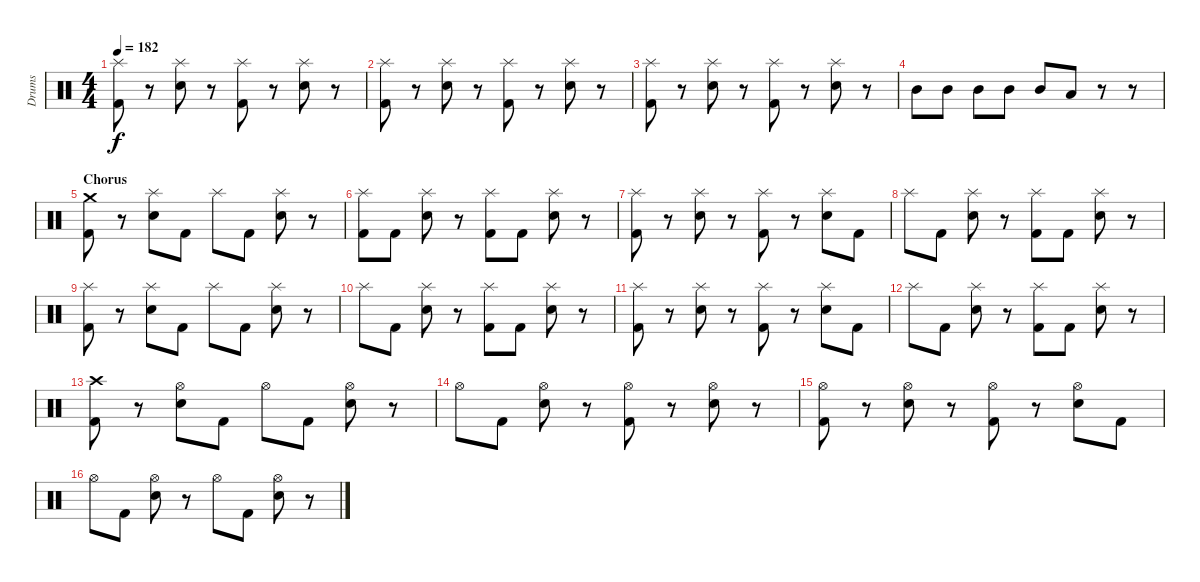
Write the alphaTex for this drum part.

\track ("Drums" "Drums") {instrument percussion}
\staff {score}
\articulation defaults
\ts (4 4)
\tempo 182
\clef neutral
\ks c
("Splash (hit)" "Kick (hit) 2").8{dy f} r.8 ("Splash (hit)" "Snare (hit) 2").8 r.8 ("Splash (hit)" "Kick (hit) 2").8 r.8 ("Splash (hit)" "Snare (hit) 2").8 r.8 |
("Splash (hit)" "Kick (hit) 2").8 r.8 ("Splash (hit)" "Snare (hit) 2").8 r.8 ("Splash (hit)" "Kick (hit) 2").8 r.8 ("Splash (hit)" "Snare (hit) 2").8 r.8 |
("Splash (hit)" "Kick (hit) 2").8 r.8 ("Splash (hit)" "Snare (hit) 2").8 r.8 ("Splash (hit)" "Kick (hit) 2").8 r.8 ("Splash (hit)" "Snare (hit) 2").8 r.8 |
"Mid Tom (hit)".8 "Mid Tom (hit)".8 "Mid Tom (hit)".8 "Mid Tom (hit)".8 "Mid Tom (hit)".8 "Low Tom (hit)".8 r.8 r.8 |
\section ("" "Chorus")
("Crash medium (hit)" "Kick (hit) 2").8 r.8 ("Splash (hit)" "Snare (hit) 2").8 "Kick (hit) 2".8 "Splash (hit)".8 "Kick (hit) 2".8 ("Splash (hit)" "Snare (hit) 2").8 r.8 |
("Splash (hit)" "Kick (hit) 2").8 "Kick (hit) 2".8 ("Splash (hit)" "Snare (hit) 2").8 r.8 ("Splash (hit)" "Kick (hit) 2").8 "Kick (hit) 2".8 ("Splash (hit)" "Snare (hit) 2").8 r.8 |
("Splash (hit)" "Kick (hit) 2").8 r.8 ("Splash (hit)" "Snare (hit) 2").8 r.8 ("Splash (hit)" "Kick (hit) 2").8 r.8 ("Splash (hit)" "Snare (hit) 2").8 "Kick (hit) 2".8 |
"Splash (hit)".8 "Kick (hit) 2".8 ("Splash (hit)" "Snare (hit) 2").8 r.8 ("Splash (hit)" "Kick (hit) 2").8 "Kick (hit) 2".8 ("Splash (hit)" "Snare (hit) 2").8 r.8 |
("Splash (hit)" "Kick (hit) 2").8 r.8 ("Splash (hit)" "Snare (hit) 2").8 "Kick (hit) 2".8 "Splash (hit)".8 "Kick (hit) 2".8 ("Splash (hit)" "Snare (hit) 2").8 r.8 |
"Splash (hit)".8 "Kick (hit) 2".8 ("Splash (hit)" "Snare (hit) 2").8 r.8 ("Splash (hit)" "Kick (hit) 2").8 "Kick (hit) 2".8 ("Splash (hit)" "Snare (hit) 2").8 r.8 |
("Splash (hit)" "Kick (hit) 2").8 r.8 ("Splash (hit)" "Snare (hit) 2").8 r.8 ("Splash (hit)" "Kick (hit) 2").8 r.8 ("Splash (hit)" "Snare (hit) 2").8 "Kick (hit) 2".8 |
"Splash (hit)".8 "Kick (hit) 2".8 ("Splash (hit)" "Snare (hit) 2").8 r.8 ("Splash (hit)" "Kick (hit) 2").8 "Kick (hit) 2".8 ("Splash (hit)" "Snare (hit) 2").8 r.8 |
("Crash high (hit)" "Kick (hit) 2").8 r.8 ("Hi-Hat (open)" "Snare (hit) 2").8 "Kick (hit) 2".8 "Hi-Hat (open)".8 "Kick (hit) 2".8 ("Hi-Hat (open)" "Snare (hit) 2").8 r.8 |
"Hi-Hat (open)".8 "Kick (hit) 2".8 ("Hi-Hat (open)" "Snare (hit) 2").8 r.8 ("Hi-Hat (open)" "Kick (hit) 2").8 r.8 ("Hi-Hat (open)" "Snare (hit) 2").8 r.8 |
("Hi-Hat (open)" "Kick (hit) 2").8 r.8 ("Hi-Hat (open)" "Snare (hit) 2").8 r.8 ("Hi-Hat (open)" "Kick (hit) 2").8 r.8 ("Hi-Hat (open)" "Snare (hit) 2").8 "Kick (hit) 2".8 |
"Hi-Hat (open)".8 "Kick (hit) 2".8 ("Hi-Hat (open)" "Snare (hit) 2").8 r.8 "Hi-Hat (open)".8 "Kick (hit) 2".8 ("Hi-Hat (open)" "Snare (hit) 2").8 r.8
